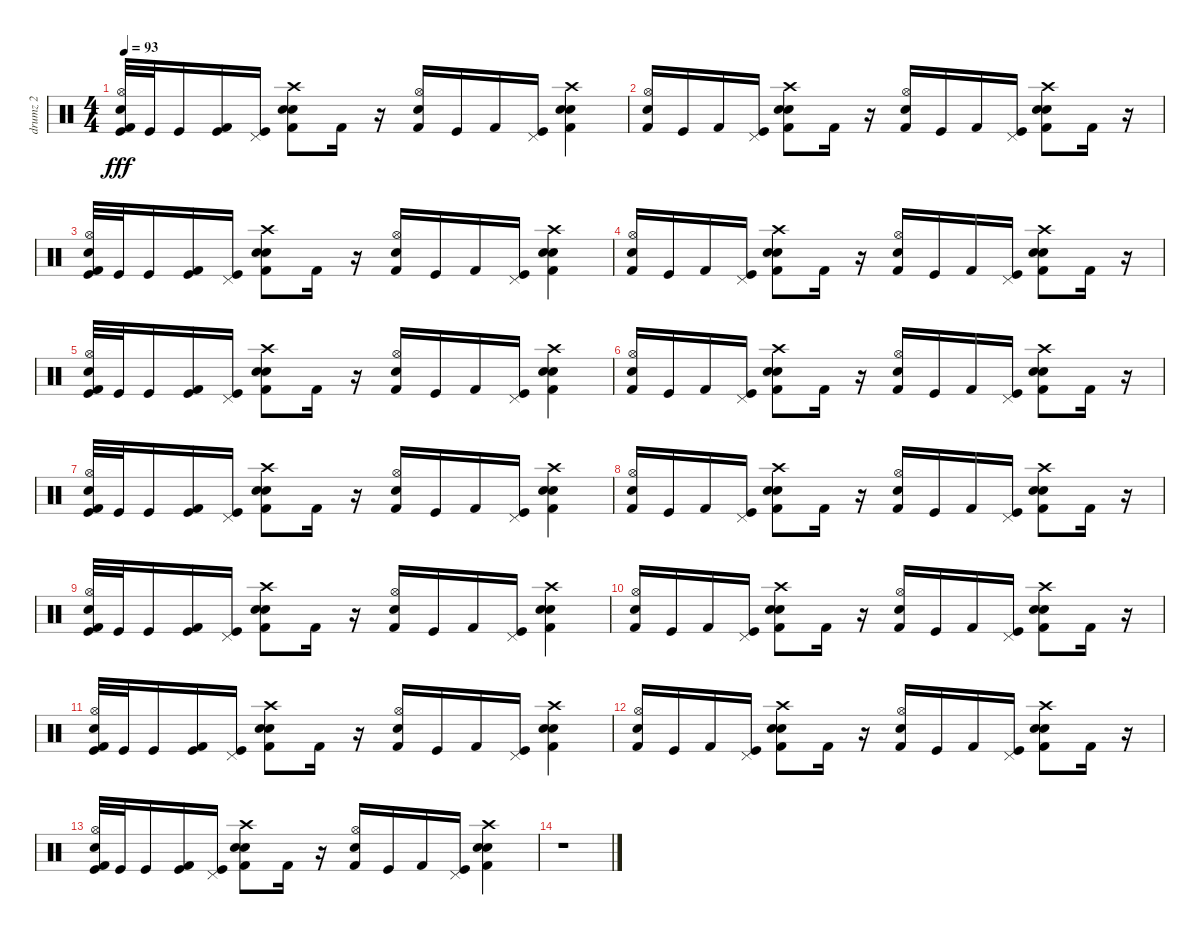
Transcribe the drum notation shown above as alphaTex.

\track ("drumz 2" "drumz 2") {instrument percussion}
\staff {score}
\articulation defaults
\ts (4 4)
\tempo 93
\clef neutral
\ks c
("Kick (hit)" "Hand Clap (hit)" "Hi-Hat (open)" "Kick (hit) 2").32{dy fff} "Kick (hit)".32 "Kick (hit)".16 ("Kick (hit)" "Kick (hit) 2").16 ("Kick (hit)" "Pedal Hi-Hat (hit)").16 ("Snare (hit) 2" "Hand Clap (hit)" "Crash high (hit)" "Kick (hit) 2").8 "Kick (hit) 2".16 r.16 ("Hand Clap (hit)" "Hi-Hat (open)" "Kick (hit) 2").16 "Kick (hit)".16 "Kick (hit) 2".16 ("Kick (hit)" "Pedal Hi-Hat (hit)").16 ("Snare (hit) 2" "Hand Clap (hit)" "Crash high (hit)" "Kick (hit) 2").4 |
("Hi-Hat (open)" "Hand Clap (hit)" "Kick (hit) 2").16 "Kick (hit)".16 "Kick (hit) 2".16 ("Kick (hit)" "Pedal Hi-Hat (hit)").16 ("Snare (hit) 2" "Crash high (hit)" "Hand Clap (hit)" "Kick (hit) 2").8 "Kick (hit) 2".16 r.16 ("Hi-Hat (open)" "Hand Clap (hit)" "Kick (hit) 2").16 "Kick (hit)".16 "Kick (hit) 2".16 ("Kick (hit)" "Pedal Hi-Hat (hit)").16 ("Snare (hit) 2" "Crash high (hit)" "Hand Clap (hit)" "Kick (hit) 2").8 "Kick (hit) 2".16 r.16 |
("Kick (hit)" "Hand Clap (hit)" "Hi-Hat (open)" "Kick (hit) 2").32 "Kick (hit)".32 "Kick (hit)".16 ("Kick (hit)" "Kick (hit) 2").16 ("Kick (hit)" "Pedal Hi-Hat (hit)").16 ("Snare (hit) 2" "Hand Clap (hit)" "Crash high (hit)" "Kick (hit) 2").8 "Kick (hit) 2".16 r.16 ("Hand Clap (hit)" "Hi-Hat (open)" "Kick (hit) 2").16 "Kick (hit)".16 "Kick (hit) 2".16 ("Kick (hit)" "Pedal Hi-Hat (hit)").16 ("Snare (hit) 2" "Hand Clap (hit)" "Crash high (hit)" "Kick (hit) 2").4 |
("Hi-Hat (open)" "Hand Clap (hit)" "Kick (hit) 2").16 "Kick (hit)".16 "Kick (hit) 2".16 ("Kick (hit)" "Pedal Hi-Hat (hit)").16 ("Snare (hit) 2" "Crash high (hit)" "Hand Clap (hit)" "Kick (hit) 2").8 "Kick (hit) 2".16 r.16 ("Hi-Hat (open)" "Hand Clap (hit)" "Kick (hit) 2").16 "Kick (hit)".16 "Kick (hit) 2".16 ("Kick (hit)" "Pedal Hi-Hat (hit)").16 ("Snare (hit) 2" "Crash high (hit)" "Hand Clap (hit)" "Kick (hit) 2").8 "Kick (hit) 2".16 r.16 |
("Kick (hit)" "Hand Clap (hit)" "Hi-Hat (open)" "Kick (hit) 2").32 "Kick (hit)".32 "Kick (hit)".16 ("Kick (hit)" "Kick (hit) 2").16 ("Kick (hit)" "Pedal Hi-Hat (hit)").16 ("Snare (hit) 2" "Hand Clap (hit)" "Crash high (hit)" "Kick (hit) 2").8 "Kick (hit) 2".16 r.16 ("Hand Clap (hit)" "Hi-Hat (open)" "Kick (hit) 2").16 "Kick (hit)".16 "Kick (hit) 2".16 ("Kick (hit)" "Pedal Hi-Hat (hit)").16 ("Snare (hit) 2" "Hand Clap (hit)" "Crash high (hit)" "Kick (hit) 2").4 |
("Hi-Hat (open)" "Hand Clap (hit)" "Kick (hit) 2").16 "Kick (hit)".16 "Kick (hit) 2".16 ("Kick (hit)" "Pedal Hi-Hat (hit)").16 ("Snare (hit) 2" "Crash high (hit)" "Hand Clap (hit)" "Kick (hit) 2").8 "Kick (hit) 2".16 r.16 ("Hi-Hat (open)" "Hand Clap (hit)" "Kick (hit) 2").16 "Kick (hit)".16 "Kick (hit) 2".16 ("Kick (hit)" "Pedal Hi-Hat (hit)").16 ("Snare (hit) 2" "Crash high (hit)" "Hand Clap (hit)" "Kick (hit) 2").8 "Kick (hit) 2".16 r.16 |
("Kick (hit)" "Hand Clap (hit)" "Hi-Hat (open)" "Kick (hit) 2").32 "Kick (hit)".32 "Kick (hit)".16 ("Kick (hit)" "Kick (hit) 2").16 ("Kick (hit)" "Pedal Hi-Hat (hit)").16 ("Snare (hit) 2" "Hand Clap (hit)" "Crash high (hit)" "Kick (hit) 2").8 "Kick (hit) 2".16 r.16 ("Hand Clap (hit)" "Hi-Hat (open)" "Kick (hit) 2").16 "Kick (hit)".16 "Kick (hit) 2".16 ("Kick (hit)" "Pedal Hi-Hat (hit)").16 ("Snare (hit) 2" "Hand Clap (hit)" "Crash high (hit)" "Kick (hit) 2").4 |
("Hi-Hat (open)" "Hand Clap (hit)" "Kick (hit) 2").16 "Kick (hit)".16 "Kick (hit) 2".16 ("Kick (hit)" "Pedal Hi-Hat (hit)").16 ("Snare (hit) 2" "Crash high (hit)" "Hand Clap (hit)" "Kick (hit) 2").8 "Kick (hit) 2".16 r.16 ("Hi-Hat (open)" "Hand Clap (hit)" "Kick (hit) 2").16 "Kick (hit)".16 "Kick (hit) 2".16 ("Kick (hit)" "Pedal Hi-Hat (hit)").16 ("Snare (hit) 2" "Crash high (hit)" "Hand Clap (hit)" "Kick (hit) 2").8 "Kick (hit) 2".16 r.16 |
("Kick (hit)" "Hand Clap (hit)" "Hi-Hat (open)" "Kick (hit) 2").32 "Kick (hit)".32 "Kick (hit)".16 ("Kick (hit)" "Kick (hit) 2").16 ("Kick (hit)" "Pedal Hi-Hat (hit)").16 ("Snare (hit) 2" "Hand Clap (hit)" "Crash high (hit)" "Kick (hit) 2").8 "Kick (hit) 2".16 r.16 ("Hand Clap (hit)" "Hi-Hat (open)" "Kick (hit) 2").16 "Kick (hit)".16 "Kick (hit) 2".16 ("Kick (hit)" "Pedal Hi-Hat (hit)").16 ("Snare (hit) 2" "Hand Clap (hit)" "Crash high (hit)" "Kick (hit) 2").4 |
("Hi-Hat (open)" "Hand Clap (hit)" "Kick (hit) 2").16 "Kick (hit)".16 "Kick (hit) 2".16 ("Kick (hit)" "Pedal Hi-Hat (hit)").16 ("Snare (hit) 2" "Crash high (hit)" "Hand Clap (hit)" "Kick (hit) 2").8 "Kick (hit) 2".16 r.16 ("Hi-Hat (open)" "Hand Clap (hit)" "Kick (hit) 2").16 "Kick (hit)".16 "Kick (hit) 2".16 ("Kick (hit)" "Pedal Hi-Hat (hit)").16 ("Snare (hit) 2" "Crash high (hit)" "Hand Clap (hit)" "Kick (hit) 2").8 "Kick (hit) 2".16 r.16 |
("Kick (hit)" "Hand Clap (hit)" "Hi-Hat (open)" "Kick (hit) 2").32 "Kick (hit)".32 "Kick (hit)".16 ("Kick (hit)" "Kick (hit) 2").16 ("Kick (hit)" "Pedal Hi-Hat (hit)").16 ("Snare (hit) 2" "Hand Clap (hit)" "Crash high (hit)" "Kick (hit) 2").8 "Kick (hit) 2".16 r.16 ("Hand Clap (hit)" "Hi-Hat (open)" "Kick (hit) 2").16 "Kick (hit)".16 "Kick (hit) 2".16 ("Kick (hit)" "Pedal Hi-Hat (hit)").16 ("Snare (hit) 2" "Hand Clap (hit)" "Crash high (hit)" "Kick (hit) 2").4 |
("Hi-Hat (open)" "Hand Clap (hit)" "Kick (hit) 2").16 "Kick (hit)".16 "Kick (hit) 2".16 ("Kick (hit)" "Pedal Hi-Hat (hit)").16 ("Snare (hit) 2" "Crash high (hit)" "Hand Clap (hit)" "Kick (hit) 2").8 "Kick (hit) 2".16 r.16 ("Hi-Hat (open)" "Hand Clap (hit)" "Kick (hit) 2").16 "Kick (hit)".16 "Kick (hit) 2".16 ("Kick (hit)" "Pedal Hi-Hat (hit)").16 ("Snare (hit) 2" "Crash high (hit)" "Hand Clap (hit)" "Kick (hit) 2").8 "Kick (hit) 2".16 r.16 |
("Kick (hit)" "Hand Clap (hit)" "Hi-Hat (open)" "Kick (hit) 2").32 "Kick (hit)".32 "Kick (hit)".16 ("Kick (hit)" "Kick (hit) 2").16 ("Kick (hit)" "Pedal Hi-Hat (hit)").16 ("Snare (hit) 2" "Hand Clap (hit)" "Crash high (hit)" "Kick (hit) 2").8 "Kick (hit) 2".16 r.16 ("Hand Clap (hit)" "Hi-Hat (open)" "Kick (hit) 2").16 "Kick (hit)".16 "Kick (hit) 2".16 ("Kick (hit)" "Pedal Hi-Hat (hit)").16 ("Snare (hit) 2" "Hand Clap (hit)" "Crash high (hit)" "Kick (hit) 2").4 |
r.1
